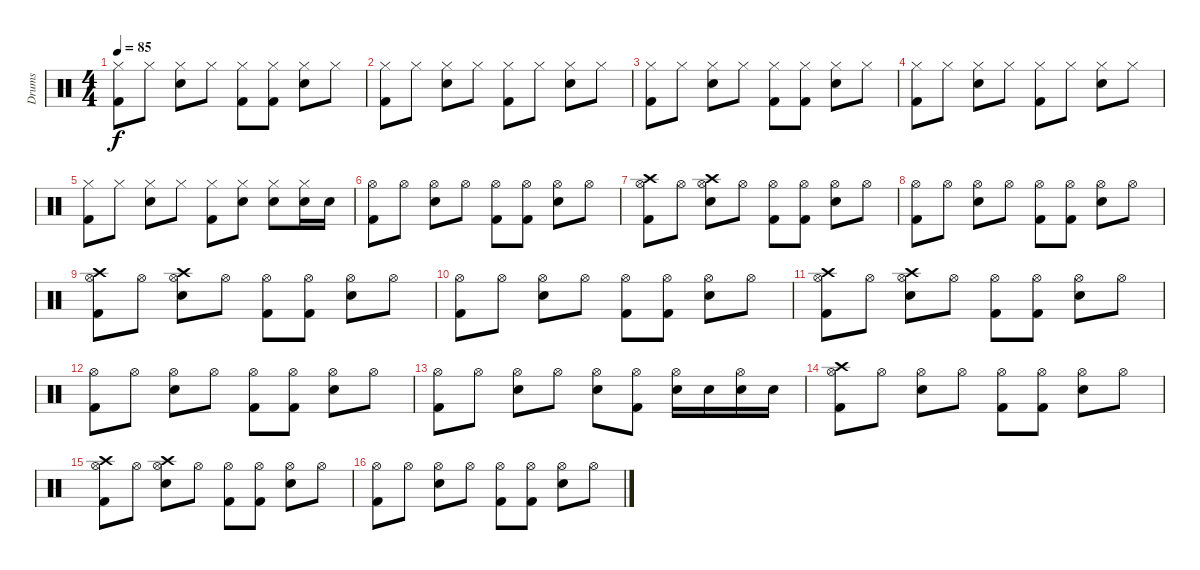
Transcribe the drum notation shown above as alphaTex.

\track ("Drums" "Drums") {instrument percussion}
\staff {score}
\articulation defaults
\ts (4 4)
\tempo 85
\clef neutral
\ks c
("Hi-Hat (closed)" "Kick (hit) 2").8{dy f} "Hi-Hat (closed)".8 ("Hi-Hat (closed)" "Snare (hit) 2").8 "Hi-Hat (closed)".8 ("Hi-Hat (closed)" "Kick (hit) 2").8 ("Hi-Hat (closed)" "Kick (hit) 2").8 ("Hi-Hat (closed)" "Snare (hit) 2").8 "Hi-Hat (closed)".8 |
("Hi-Hat (closed)" "Kick (hit) 2").8 "Hi-Hat (closed)".8 ("Hi-Hat (closed)" "Snare (hit) 2").8 "Hi-Hat (closed)".8 ("Hi-Hat (closed)" "Kick (hit) 2").8 "Hi-Hat (closed)".8 ("Hi-Hat (closed)" "Snare (hit) 2").8 "Hi-Hat (closed)".8 |
("Hi-Hat (closed)" "Kick (hit) 2").8 "Hi-Hat (closed)".8 ("Hi-Hat (closed)" "Snare (hit) 2").8 "Hi-Hat (closed)".8 ("Hi-Hat (closed)" "Kick (hit) 2").8 ("Hi-Hat (closed)" "Kick (hit) 2").8 ("Hi-Hat (closed)" "Snare (hit) 2").8 "Hi-Hat (closed)".8 |
("Hi-Hat (closed)" "Kick (hit) 2").8 "Hi-Hat (closed)".8 ("Hi-Hat (closed)" "Snare (hit) 2").8 "Hi-Hat (closed)".8 ("Hi-Hat (closed)" "Kick (hit) 2").8 "Hi-Hat (closed)".8 ("Hi-Hat (closed)" "Snare (hit) 2").8 "Hi-Hat (closed)".8 |
("Hi-Hat (closed)" "Kick (hit) 2").8 "Hi-Hat (closed)".8 ("Hi-Hat (closed)" "Snare (hit) 2").8 "Hi-Hat (closed)".8 ("Hi-Hat (closed)" "Kick (hit) 2").8 ("Hi-Hat (closed)" "Snare (hit) 2").8 ("Hi-Hat (closed)" "Snare (hit) 2").8 ("Hi-Hat (closed)" "Snare (hit) 2").16 "Snare (hit) 2".16 |
("Hi-Hat (open)" "Kick (hit) 2").8 "Hi-Hat (open)".8 ("Hi-Hat (open)" "Snare (hit) 2").8 "Hi-Hat (open)".8 ("Hi-Hat (open)" "Kick (hit) 2").8 ("Hi-Hat (open)" "Kick (hit) 2").8 ("Hi-Hat (open)" "Snare (hit) 2").8 "Hi-Hat (open)".8 |
("Hi-Hat (open)" "Crash high (hit)" "Kick (hit) 2").8 "Hi-Hat (open)".8 ("Hi-Hat (open)" "Crash high (hit)" "Snare (hit) 2").8 "Hi-Hat (open)".8 ("Hi-Hat (open)" "Kick (hit) 2").8 ("Hi-Hat (open)" "Kick (hit) 2").8 ("Hi-Hat (open)" "Snare (hit) 2").8 "Hi-Hat (open)".8 |
("Hi-Hat (open)" "Kick (hit) 2").8 "Hi-Hat (open)".8 ("Hi-Hat (open)" "Snare (hit) 2").8 "Hi-Hat (open)".8 ("Hi-Hat (open)" "Kick (hit) 2").8 ("Hi-Hat (open)" "Kick (hit) 2").8 ("Hi-Hat (open)" "Snare (hit) 2").8 "Hi-Hat (open)".8 |
("Hi-Hat (open)" "Crash high (hit)" "Kick (hit) 2").8 "Hi-Hat (open)".8 ("Hi-Hat (open)" "Crash high (hit)" "Snare (hit) 2").8 "Hi-Hat (open)".8 ("Hi-Hat (open)" "Kick (hit) 2").8 ("Hi-Hat (open)" "Kick (hit) 2").8 ("Hi-Hat (open)" "Snare (hit) 2").8 "Hi-Hat (open)".8 |
("Hi-Hat (open)" "Kick (hit) 2").8 "Hi-Hat (open)".8 ("Hi-Hat (open)" "Snare (hit) 2").8 "Hi-Hat (open)".8 ("Hi-Hat (open)" "Kick (hit) 2").8 ("Hi-Hat (open)" "Kick (hit) 2").8 ("Hi-Hat (open)" "Snare (hit) 2").8 "Hi-Hat (open)".8 |
("Hi-Hat (open)" "Crash high (hit)" "Kick (hit) 2").8 "Hi-Hat (open)".8 ("Hi-Hat (open)" "Crash high (hit)" "Snare (hit) 2").8 "Hi-Hat (open)".8 ("Hi-Hat (open)" "Kick (hit) 2").8 ("Hi-Hat (open)" "Kick (hit) 2").8 ("Hi-Hat (open)" "Snare (hit) 2").8 "Hi-Hat (open)".8 |
("Hi-Hat (open)" "Kick (hit) 2").8 "Hi-Hat (open)".8 ("Hi-Hat (open)" "Snare (hit) 2").8 "Hi-Hat (open)".8 ("Hi-Hat (open)" "Kick (hit) 2").8 ("Hi-Hat (open)" "Kick (hit) 2").8 ("Hi-Hat (open)" "Snare (hit) 2").8 "Hi-Hat (open)".8 |
("Hi-Hat (open)" "Kick (hit) 2").8 "Hi-Hat (open)".8 ("Hi-Hat (open)" "Snare (hit) 2").8 "Hi-Hat (open)".8 ("Hi-Hat (open)" "Snare (hit) 2").8 ("Hi-Hat (open)" "Kick (hit) 2").8 ("Hi-Hat (open)" "Snare (hit) 2").16 "Snare (hit) 2".16 ("Hi-Hat (open)" "Snare (hit) 2").16 "Snare (hit) 2".16 |
("Hi-Hat (open)" "Crash high (hit)" "Kick (hit) 2").8 "Hi-Hat (open)".8 ("Hi-Hat (open)" "Snare (hit) 2").8 "Hi-Hat (open)".8 ("Hi-Hat (open)" "Kick (hit) 2").8 ("Hi-Hat (open)" "Kick (hit) 2").8 ("Hi-Hat (open)" "Snare (hit) 2").8 "Hi-Hat (open)".8 |
("Hi-Hat (open)" "Crash high (hit)" "Kick (hit) 2").8 "Hi-Hat (open)".8 ("Hi-Hat (open)" "Crash high (hit)" "Snare (hit) 2").8 "Hi-Hat (open)".8 ("Hi-Hat (open)" "Kick (hit) 2").8 ("Hi-Hat (open)" "Kick (hit) 2").8 ("Hi-Hat (open)" "Snare (hit) 2").8 "Hi-Hat (open)".8 |
("Hi-Hat (open)" "Kick (hit) 2").8 "Hi-Hat (open)".8 ("Hi-Hat (open)" "Snare (hit) 2").8 "Hi-Hat (open)".8 ("Hi-Hat (open)" "Kick (hit) 2").8 ("Hi-Hat (open)" "Kick (hit) 2").8 ("Hi-Hat (open)" "Snare (hit) 2").8 "Hi-Hat (open)".8
